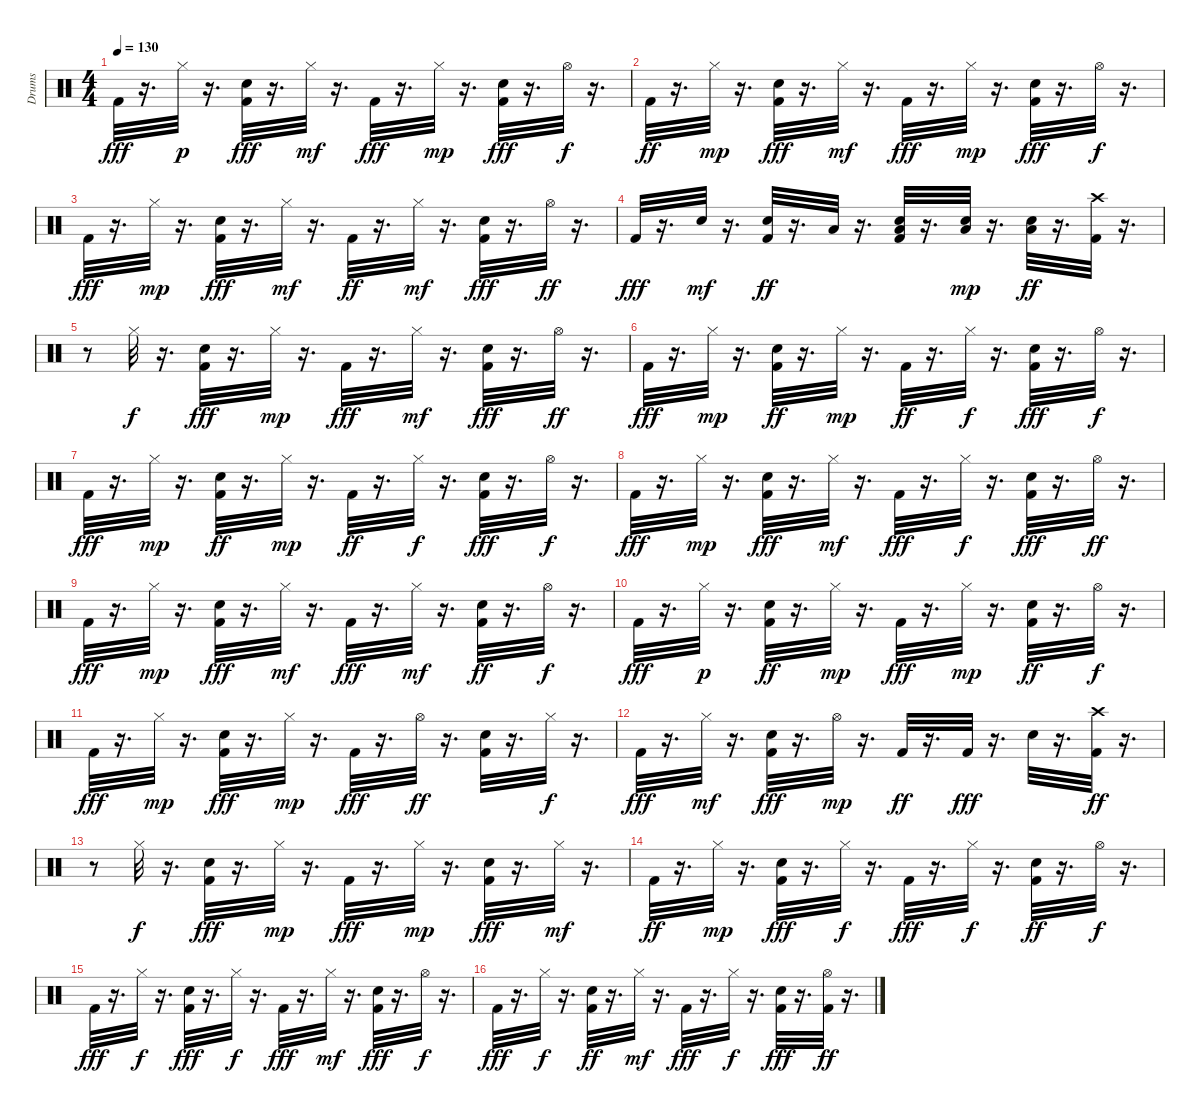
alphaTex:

\track ("Drums               " "Drums     ") {instrument percussion}
\staff {score}
\articulation defaults
\ts (4 4)
\tempo 130
\clef neutral
\ks c "Kick (hit) 2".32{dy fff}
r.16{d} "Hi-Hat (closed)".32{dy p} r.16{d} ("Kick (hit) 2" "Snare (hit) 2").32{dy fff} r.16{d} "Hi-Hat (closed)".32{dy mf} r.16{d} "Kick (hit) 2".32{dy fff} r.16{d} "Hi-Hat (closed)".32{dy mp} r.16{d} ("Kick (hit) 2" "Snare (hit) 2").32{dy fff} r.16{d} "Hi-Hat (open)".32{dy f} r.16{d} |
"Kick (hit) 2".32{dy ff} r.16{d} "Hi-Hat (closed)".32{dy mp} r.16{d} ("Kick (hit) 2" "Snare (hit) 2").32{dy fff} r.16{d} "Hi-Hat (closed)".32{dy mf} r.16{d} "Kick (hit) 2".32{dy fff} r.16{d} "Hi-Hat (closed)".32{dy mp} r.16{d} ("Kick (hit) 2" "Snare (hit) 2").32{dy fff} r.16{d} "Hi-Hat (open)".32{dy f} r.16{d} |
"Kick (hit) 2".32{dy fff} r.16{d} "Hi-Hat (closed)".32{dy mp} r.16{d} ("Kick (hit) 2" "Snare (hit) 2").32{dy fff} r.16{d} "Hi-Hat (closed)".32{dy mf} r.16{d} "Kick (hit) 2".32{dy ff} r.16{d} "Hi-Hat (closed)".32{dy mf} r.16{d} ("Kick (hit) 2" "Snare (hit) 2").32{dy fff} r.16{d} "Hi-Hat (open)".32{dy ff} r.16{d} |
"Kick (hit) 2".32{dy fff} r.16{d} "Snare (hit) 2".32{dy mf} r.16{d} ("Kick (hit) 2" "Snare (hit) 2").32{dy ff} r.16{d} "Low Tom (hit)".32 r.16{d} ("Kick (hit) 2" "Snare (hit) 2" "Low Tom (hit)").32 r.16{d} ("Snare (hit) 2" "Low Floor Tom (hit)").32{dy mp} r.16{d} ("Snare (hit) 2" "Low Floor Tom (hit)").32{dy ff} r.16{d} ("Kick (hit) 2" "Crash high (hit)").32 r.16{d} |
r.8 "Hi-Hat (closed)".32{dy f} r.16{d} ("Kick (hit) 2" "Snare (hit) 2").32{dy fff} r.16{d} "Hi-Hat (closed)".32{dy mp} r.16{d} "Kick (hit) 2".32{dy fff} r.16{d} "Hi-Hat (closed)".32{dy mf} r.16{d} ("Kick (hit) 2" "Snare (hit) 2").32{dy fff} r.16{d} "Hi-Hat (open)".32{dy ff} r.16{d} |
"Kick (hit) 2".32{dy fff} r.16{d} "Hi-Hat (closed)".32{dy mp} r.16{d} ("Kick (hit) 2" "Snare (hit) 2").32{dy ff} r.16{d} "Hi-Hat (closed)".32{dy mp} r.16{d} "Kick (hit) 2".32{dy ff} r.16{d} "Hi-Hat (closed)".32{dy f} r.16{d} ("Kick (hit) 2" "Snare (hit) 2").32{dy fff} r.16{d} "Hi-Hat (open)".32{dy f} r.16{d} |
"Kick (hit) 2".32{dy fff} r.16{d} "Hi-Hat (closed)".32{dy mp} r.16{d} ("Kick (hit) 2" "Snare (hit) 2").32{dy ff} r.16{d} "Hi-Hat (closed)".32{dy mp} r.16{d} "Kick (hit) 2".32{dy ff} r.16{d} "Hi-Hat (closed)".32{dy f} r.16{d} ("Kick (hit) 2" "Snare (hit) 2").32{dy fff} r.16{d} "Hi-Hat (open)".32{dy f} r.16{d} |
"Kick (hit) 2".32{dy fff} r.16{d} "Hi-Hat (closed)".32{dy mp} r.16{d} ("Kick (hit) 2" "Snare (hit) 2").32{dy fff} r.16{d} "Hi-Hat (closed)".32{dy mf} r.16{d} "Kick (hit) 2".32{dy fff} r.16{d} "Hi-Hat (closed)".32{dy f} r.16{d} ("Kick (hit) 2" "Snare (hit) 2").32{dy fff} r.16{d} "Hi-Hat (open)".32{dy ff} r.16{d} |
"Kick (hit) 2".32{dy fff} r.16{d} "Hi-Hat (closed)".32{dy mp} r.16{d} ("Kick (hit) 2" "Snare (hit) 2").32{dy fff} r.16{d} "Hi-Hat (closed)".32{dy mf} r.16{d} "Kick (hit) 2".32{dy fff} r.16{d} "Hi-Hat (closed)".32{dy mf} r.16{d} ("Kick (hit) 2" "Snare (hit) 2").32{dy ff} r.16{d} "Hi-Hat (open)".32{dy f} r.16{d} |
"Kick (hit) 2".32{dy fff} r.16{d} "Hi-Hat (closed)".32{dy p} r.16{d} ("Kick (hit) 2" "Snare (hit) 2").32{dy ff} r.16{d} "Hi-Hat (closed)".32{dy mp} r.16{d} "Kick (hit) 2".32{dy fff} r.16{d} "Hi-Hat (closed)".32{dy mp} r.16{d} ("Kick (hit) 2" "Snare (hit) 2").32{dy ff} r.16{d} "Hi-Hat (open)".32{dy f} r.16{d} |
"Kick (hit) 2".32{dy fff} r.16{d} "Hi-Hat (closed)".32{dy mp} r.16{d} ("Kick (hit) 2" "Snare (hit) 2").32{dy fff} r.16{d} "Hi-Hat (closed)".32{dy mp} r.16{d} "Kick (hit) 2".32{dy fff} r.16{d} "Hi-Hat (open)".32{dy ff} r.16{d} ("Kick (hit) 2" "Snare (hit) 2").32 r.16{d} "Hi-Hat (closed)".32{dy f} r.16{d} |
"Kick (hit) 2".32{dy fff} r.16{d} "Hi-Hat (closed)".32{dy mf} r.16{d} ("Kick (hit) 2" "Snare (hit) 2").32{dy fff} r.16{d} "Hi-Hat (open)".32{dy mp} r.16{d} "Kick (hit) 2".32{dy ff} r.16{d} "Kick (hit) 2".32{dy fff} r.16{d} "Snare (hit) 2".32 r.16{d} ("Kick (hit) 2" "Crash high (hit)").32{dy ff} r.16{d} |
r.8 "Hi-Hat (closed)".32{dy f} r.16{d} ("Kick (hit) 2" "Snare (hit) 2").32{dy fff} r.16{d} "Hi-Hat (closed)".32{dy mp} r.16{d} "Kick (hit) 2".32{dy fff} r.16{d} "Hi-Hat (closed)".32{dy mp} r.16{d} ("Kick (hit) 2" "Snare (hit) 2").32{dy fff} r.16{d} "Hi-Hat (closed)".32{dy mf} r.16{d} |
"Kick (hit) 2".32{dy ff} r.16{d} "Hi-Hat (closed)".32{dy mp} r.16{d} ("Kick (hit) 2" "Snare (hit) 2").32{dy fff} r.16{d} "Hi-Hat (closed)".32{dy f} r.16{d} "Kick (hit) 2".32{dy fff} r.16{d} "Hi-Hat (closed)".32{dy f} r.16{d} ("Kick (hit) 2" "Snare (hit) 2").32{dy ff} r.16{d} "Hi-Hat (open)".32{dy f} r.16{d} |
"Kick (hit) 2".32{dy fff} r.16{d} "Hi-Hat (closed)".32{dy f} r.16{d} ("Kick (hit) 2" "Snare (hit) 2").32{dy fff} r.16{d} "Hi-Hat (closed)".32{dy f} r.16{d} "Kick (hit) 2".32{dy fff} r.16{d} "Hi-Hat (closed)".32{dy mf} r.16{d} ("Kick (hit) 2" "Snare (hit) 2").32{dy fff} r.16{d} "Hi-Hat (open)".32{dy f} r.16{d} |
"Kick (hit) 2".32{dy fff} r.16{d} "Hi-Hat (closed)".32{dy f} r.16{d} ("Kick (hit) 2" "Snare (hit) 2").32{dy ff} r.16{d} "Hi-Hat (closed)".32{dy mf} r.16{d} "Kick (hit) 2".32{dy fff} r.16{d} "Hi-Hat (closed)".32{dy f} r.16{d} ("Kick (hit) 2" "Snare (hit) 2").32{dy fff} r.16{d} ("Kick (hit) 2" "Hi-Hat (open)").32{dy ff} r.16{d}
